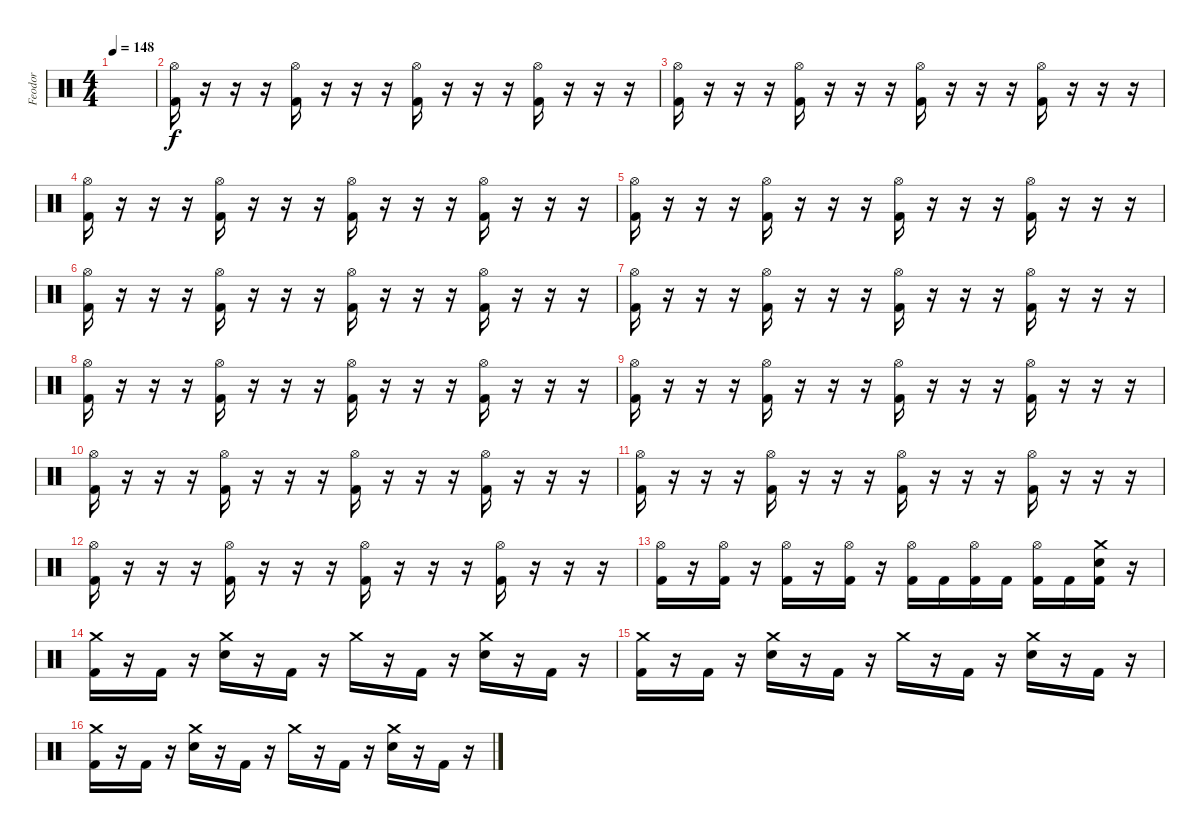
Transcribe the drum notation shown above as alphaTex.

\track ("Feodor" "Feodor") {instrument percussion}
\staff {score}
\articulation defaults
\ts (4 4)
\tempo 148
\clef neutral
\ks c
|
("Hi-Hat (open)" "Kick (hit) 2").16 r.16 r.16 r.16 ("Hi-Hat (open)" "Kick (hit) 2").16 r.16 r.16 r.16 ("Kick (hit) 2" "Hi-Hat (open)").16 r.16 r.16 r.16 ("Kick (hit) 2" "Hi-Hat (open)").16 r.16 r.16 r.16 |
("Hi-Hat (open)" "Kick (hit) 2").16 r.16 r.16 r.16 ("Hi-Hat (open)" "Kick (hit) 2").16 r.16 r.16 r.16 ("Kick (hit) 2" "Hi-Hat (open)").16 r.16 r.16 r.16 ("Kick (hit) 2" "Hi-Hat (open)").16 r.16 r.16 r.16 |
("Hi-Hat (open)" "Kick (hit) 2").16 r.16 r.16 r.16 ("Hi-Hat (open)" "Kick (hit) 2").16 r.16 r.16 r.16 ("Kick (hit) 2" "Hi-Hat (open)").16 r.16 r.16 r.16 ("Kick (hit) 2" "Hi-Hat (open)").16 r.16 r.16 r.16 |
("Hi-Hat (open)" "Kick (hit) 2").16 r.16 r.16 r.16 ("Hi-Hat (open)" "Kick (hit) 2").16 r.16 r.16 r.16 ("Kick (hit) 2" "Hi-Hat (open)").16 r.16 r.16 r.16 ("Kick (hit) 2" "Hi-Hat (open)").16 r.16 r.16 r.16 |
("Hi-Hat (open)" "Kick (hit) 2").16 r.16 r.16 r.16 ("Hi-Hat (open)" "Kick (hit) 2").16 r.16 r.16 r.16 ("Kick (hit) 2" "Hi-Hat (open)").16 r.16 r.16 r.16 ("Kick (hit) 2" "Hi-Hat (open)").16 r.16 r.16 r.16 |
("Hi-Hat (open)" "Kick (hit) 2").16 r.16 r.16 r.16 ("Hi-Hat (open)" "Kick (hit) 2").16 r.16 r.16 r.16 ("Kick (hit) 2" "Hi-Hat (open)").16 r.16 r.16 r.16 ("Kick (hit) 2" "Hi-Hat (open)").16 r.16 r.16 r.16 |
("Hi-Hat (open)" "Kick (hit) 2").16 r.16 r.16 r.16 ("Hi-Hat (open)" "Kick (hit) 2").16 r.16 r.16 r.16 ("Kick (hit) 2" "Hi-Hat (open)").16 r.16 r.16 r.16 ("Kick (hit) 2" "Hi-Hat (open)").16 r.16 r.16 r.16 |
("Hi-Hat (open)" "Kick (hit) 2").16 r.16 r.16 r.16 ("Hi-Hat (open)" "Kick (hit) 2").16 r.16 r.16 r.16 ("Kick (hit) 2" "Hi-Hat (open)").16 r.16 r.16 r.16 ("Kick (hit) 2" "Hi-Hat (open)").16 r.16 r.16 r.16 |
("Hi-Hat (open)" "Kick (hit) 2").16 r.16 r.16 r.16 ("Hi-Hat (open)" "Kick (hit) 2").16 r.16 r.16 r.16 ("Kick (hit) 2" "Hi-Hat (open)").16 r.16 r.16 r.16 ("Kick (hit) 2" "Hi-Hat (open)").16 r.16 r.16 r.16 |
("Hi-Hat (open)" "Kick (hit) 2").16 r.16 r.16 r.16 ("Hi-Hat (open)" "Kick (hit) 2").16 r.16 r.16 r.16 ("Kick (hit) 2" "Hi-Hat (open)").16 r.16 r.16 r.16 ("Kick (hit) 2" "Hi-Hat (open)").16 r.16 r.16 r.16 |
("Hi-Hat (open)" "Kick (hit) 2").16 r.16 r.16 r.16 ("Hi-Hat (open)" "Kick (hit) 2").16 r.16 r.16 r.16 ("Kick (hit) 2" "Hi-Hat (open)").16 r.16 r.16 r.16 ("Kick (hit) 2" "Hi-Hat (open)").16 r.16 r.16 r.16 |
("Hi-Hat (open)" "Kick (hit) 2").16 r.16 ("Kick (hit) 2" "Hi-Hat (open)").16 r.16 ("Hi-Hat (open)" "Kick (hit) 2").16 r.16 ("Kick (hit) 2" "Hi-Hat (open)").16 r.16 ("Kick (hit) 2" "Hi-Hat (open)").16 "Kick (hit) 2".16 ("Kick (hit) 2" "Hi-Hat (open)").16 "Kick (hit) 2".16 ("Kick (hit) 2" "Hi-Hat (open)").16 "Kick (hit) 2".16 ("Kick (hit) 2" "Electric Snare (hit)" "Crash medium (hit)").16 r.16 |
("Kick (hit) 2" "Crash medium (hit)").16 r.16 "Kick (hit) 2".16 r.16 ("Electric Snare (hit)" "Crash medium (hit)").16 r.16 "Kick (hit) 2".16 r.16 "Crash medium (hit)".16 r.16 "Kick (hit) 2".16 r.16 ("Electric Snare (hit)" "Crash medium (hit)").16 r.16 "Kick (hit) 2".16 r.16 |
("Kick (hit) 2" "Crash medium (hit)").16 r.16 "Kick (hit) 2".16 r.16 ("Electric Snare (hit)" "Crash medium (hit)").16 r.16 "Kick (hit) 2".16 r.16 "Crash medium (hit)".16 r.16 "Kick (hit) 2".16 r.16 ("Electric Snare (hit)" "Crash medium (hit)").16 r.16 "Kick (hit) 2".16 r.16 |
("Kick (hit) 2" "Crash medium (hit)").16 r.16 "Kick (hit) 2".16 r.16 ("Electric Snare (hit)" "Crash medium (hit)").16 r.16 "Kick (hit) 2".16 r.16 "Crash medium (hit)".16 r.16 "Kick (hit) 2".16 r.16 ("Electric Snare (hit)" "Crash medium (hit)").16 r.16 "Kick (hit) 2".16 r.16
